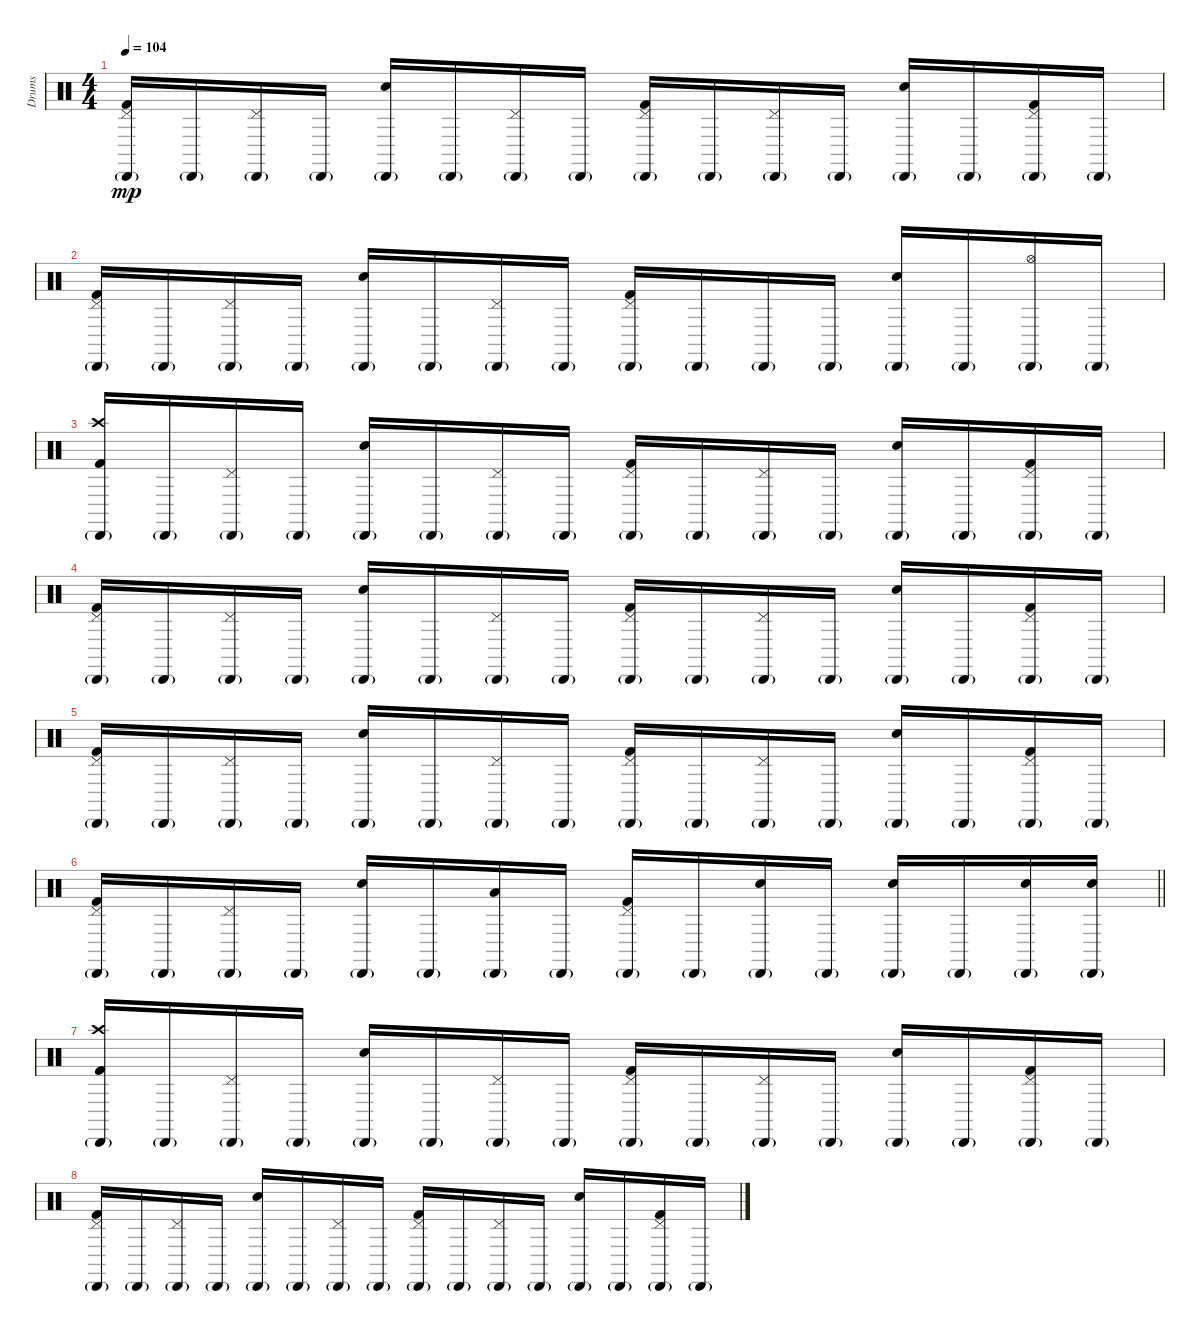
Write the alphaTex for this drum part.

\track ("Drums" "Drums") {instrument percussion}
\staff {score}
\articulation defaults
\ts (4 4)
\tempo 104
\clef neutral
\ks c
("Pedal Hi-Hat (hit)" "Cabasa (hit)"{g} "Kick (hit) 2").16{dy mp} "Cabasa (hit)"{g}.16 ("Pedal Hi-Hat (hit)" "Cabasa (hit)"{g}).16 "Cabasa (hit)"{g}.16 ("Snare (hit) 2" "Cabasa (hit)"{g}).16 "Cabasa (hit)"{g}.16 ("Pedal Hi-Hat (hit)" "Cabasa (hit)"{g}).16 "Cabasa (hit)"{g}.16 ("Pedal Hi-Hat (hit)" "Cabasa (hit)"{g} "Kick (hit) 2").16 "Cabasa (hit)"{g}.16 ("Pedal Hi-Hat (hit)" "Cabasa (hit)"{g}).16 "Cabasa (hit)"{g}.16 ("Snare (hit) 2" "Cabasa (hit)"{g}).16 "Cabasa (hit)"{g}.16 ("Pedal Hi-Hat (hit)" "Cabasa (hit)"{g} "Kick (hit) 2").16 "Cabasa (hit)"{g}.16 |
("Pedal Hi-Hat (hit)" "Cabasa (hit)"{g} "Kick (hit) 2").16 "Cabasa (hit)"{g}.16 ("Pedal Hi-Hat (hit)" "Cabasa (hit)"{g}).16 "Cabasa (hit)"{g}.16 ("Snare (hit) 2" "Cabasa (hit)"{g}).16 "Cabasa (hit)"{g}.16 ("Pedal Hi-Hat (hit)" "Cabasa (hit)"{g}).16 "Cabasa (hit)"{g}.16 ("Pedal Hi-Hat (hit)" "Cabasa (hit)"{g} "Kick (hit) 2").16 "Cabasa (hit)"{g}.16 "Cabasa (hit)"{g}.16 "Cabasa (hit)"{g}.16 ("Snare (hit) 2" "Cabasa (hit)"{g}).16 "Cabasa (hit)"{g}.16 ("Hi-Hat (open)" "Cabasa (hit)"{g}).16 "Cabasa (hit)"{g}.16 |
("Crash high (hit)" "Cabasa (hit)"{g} "Kick (hit) 2").16 "Cabasa (hit)"{g}.16 ("Pedal Hi-Hat (hit)" "Cabasa (hit)"{g}).16 "Cabasa (hit)"{g}.16 ("Snare (hit) 2" "Cabasa (hit)"{g}).16 "Cabasa (hit)"{g}.16 ("Pedal Hi-Hat (hit)" "Cabasa (hit)"{g}).16 "Cabasa (hit)"{g}.16 ("Pedal Hi-Hat (hit)" "Cabasa (hit)"{g} "Kick (hit) 2").16 "Cabasa (hit)"{g}.16 ("Pedal Hi-Hat (hit)" "Cabasa (hit)"{g}).16 "Cabasa (hit)"{g}.16 ("Snare (hit) 2" "Cabasa (hit)"{g}).16 "Cabasa (hit)"{g}.16 ("Pedal Hi-Hat (hit)" "Cabasa (hit)"{g} "Kick (hit) 2").16 "Cabasa (hit)"{g}.16 |
("Pedal Hi-Hat (hit)" "Cabasa (hit)"{g} "Kick (hit) 2").16 "Cabasa (hit)"{g}.16 ("Pedal Hi-Hat (hit)" "Cabasa (hit)"{g}).16 "Cabasa (hit)"{g}.16 ("Snare (hit) 2" "Cabasa (hit)"{g}).16 "Cabasa (hit)"{g}.16 ("Pedal Hi-Hat (hit)" "Cabasa (hit)"{g}).16 "Cabasa (hit)"{g}.16 ("Pedal Hi-Hat (hit)" "Cabasa (hit)"{g} "Kick (hit) 2").16 "Cabasa (hit)"{g}.16 ("Pedal Hi-Hat (hit)" "Cabasa (hit)"{g}).16 "Cabasa (hit)"{g}.16 ("Snare (hit) 2" "Cabasa (hit)"{g}).16 "Cabasa (hit)"{g}.16 ("Pedal Hi-Hat (hit)" "Cabasa (hit)"{g} "Kick (hit) 2").16 "Cabasa (hit)"{g}.16 |
("Pedal Hi-Hat (hit)" "Cabasa (hit)"{g} "Kick (hit) 2").16 "Cabasa (hit)"{g}.16 ("Pedal Hi-Hat (hit)" "Cabasa (hit)"{g}).16 "Cabasa (hit)"{g}.16 ("Snare (hit) 2" "Cabasa (hit)"{g}).16 "Cabasa (hit)"{g}.16 ("Pedal Hi-Hat (hit)" "Cabasa (hit)"{g}).16 "Cabasa (hit)"{g}.16 ("Pedal Hi-Hat (hit)" "Cabasa (hit)"{g} "Kick (hit) 2").16 "Cabasa (hit)"{g}.16 ("Pedal Hi-Hat (hit)" "Cabasa (hit)"{g}).16 "Cabasa (hit)"{g}.16 ("Snare (hit) 2" "Cabasa (hit)"{g}).16 "Cabasa (hit)"{g}.16 ("Pedal Hi-Hat (hit)" "Cabasa (hit)"{g} "Kick (hit) 2").16 "Cabasa (hit)"{g}.16 |
\barLineRight lightlight
("Pedal Hi-Hat (hit)" "Cabasa (hit)"{g} "Kick (hit) 2").16 "Cabasa (hit)"{g}.16 ("Pedal Hi-Hat (hit)" "Cabasa (hit)"{g}).16 "Cabasa (hit)"{g}.16 ("Snare (hit) 2" "Cabasa (hit)"{g}).16 "Cabasa (hit)"{g}.16 ("Low Tom (hit)" "Cabasa (hit)"{g}).16 "Cabasa (hit)"{g}.16 ("Pedal Hi-Hat (hit)" "Cabasa (hit)"{g} "Kick (hit) 2").16 "Cabasa (hit)"{g}.16 ("Snare (hit) 2" "Cabasa (hit)"{g}).16 "Cabasa (hit)"{g}.16 ("Snare (hit) 2" "Cabasa (hit)"{g}).16 "Cabasa (hit)"{g}.16 ("Snare (hit) 2" "Cabasa (hit)"{g}).16 ("Snare (hit) 2" "Cabasa (hit)"{g}).16 |
("Crash high (hit)" "Cabasa (hit)"{g} "Kick (hit) 2").16 "Cabasa (hit)"{g}.16 ("Pedal Hi-Hat (hit)" "Cabasa (hit)"{g}).16 "Cabasa (hit)"{g}.16 ("Snare (hit) 2" "Cabasa (hit)"{g}).16 "Cabasa (hit)"{g}.16 ("Pedal Hi-Hat (hit)" "Cabasa (hit)"{g}).16 "Cabasa (hit)"{g}.16 ("Pedal Hi-Hat (hit)" "Cabasa (hit)"{g} "Kick (hit) 2").16 "Cabasa (hit)"{g}.16 ("Pedal Hi-Hat (hit)" "Cabasa (hit)"{g}).16 "Cabasa (hit)"{g}.16 ("Snare (hit) 2" "Cabasa (hit)"{g}).16 "Cabasa (hit)"{g}.16 ("Pedal Hi-Hat (hit)" "Cabasa (hit)"{g} "Kick (hit) 2").16 "Cabasa (hit)"{g}.16 |
("Pedal Hi-Hat (hit)" "Cabasa (hit)"{g} "Kick (hit) 2").16 "Cabasa (hit)"{g}.16 ("Pedal Hi-Hat (hit)" "Cabasa (hit)"{g}).16 "Cabasa (hit)"{g}.16 ("Snare (hit) 2" "Cabasa (hit)"{g}).16 "Cabasa (hit)"{g}.16 ("Pedal Hi-Hat (hit)" "Cabasa (hit)"{g}).16 "Cabasa (hit)"{g}.16 ("Pedal Hi-Hat (hit)" "Cabasa (hit)"{g} "Kick (hit) 2").16 "Cabasa (hit)"{g}.16 ("Pedal Hi-Hat (hit)" "Cabasa (hit)"{g}).16 "Cabasa (hit)"{g}.16 ("Snare (hit) 2" "Cabasa (hit)"{g}).16 "Cabasa (hit)"{g}.16 ("Pedal Hi-Hat (hit)" "Cabasa (hit)"{g} "Kick (hit) 2").16 "Cabasa (hit)"{g}.16
